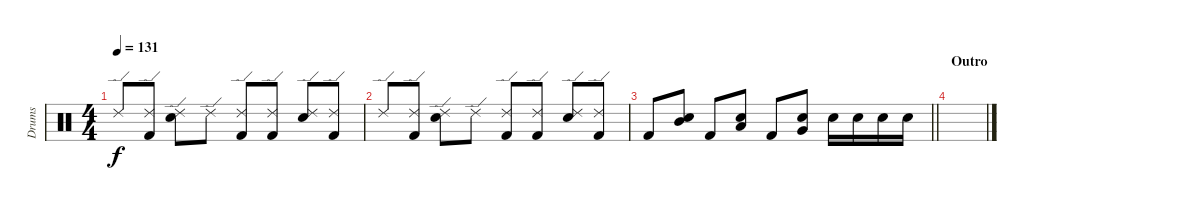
\track ("Drums" "Drums") {instrument percussion}
\staff {score}
\articulation defaults
\ts (4 4)
\tempo 131
\clef neutral
\ks c "Ride (edge) 2".8{dy f}
("Ride (edge) 2" "Kick (hit) 2").8 ("Ride (edge) 2" "Snare (hit) 2").8 "Ride (edge) 2".8 ("Ride (edge) 2" "Kick (hit) 2").8 ("Ride (edge) 2" "Kick (hit) 2").8 ("Ride (edge) 2" "Snare (hit) 2").8 ("Ride (edge) 2" "Kick (hit) 2").8 |
"Ride (edge) 2".8 ("Ride (edge) 2" "Kick (hit) 2").8 ("Ride (edge) 2" "Snare (hit) 2").8 "Ride (edge) 2".8 ("Ride (edge) 2" "Kick (hit) 2").8 ("Ride (edge) 2" "Kick (hit) 2").8 ("Ride (edge) 2" "Snare (hit) 2").8 ("Ride (edge) 2" "Kick (hit) 2").8 |
\barLineRight lightlight "Kick (hit) 2".8
("Mid Tom (hit)" "Snare (hit) 2").8 "Kick (hit) 2".8 ("Low Tom (hit)" "Snare (hit) 2").8 "Kick (hit) 2".8 ("Very Low Tom (hit)" "Snare (hit) 2").8 "Snare (hit) 2".16 "Snare (hit) 2".16 "Snare (hit) 2".16 "Snare (hit) 2".16 |
\section ("" "Outro")
